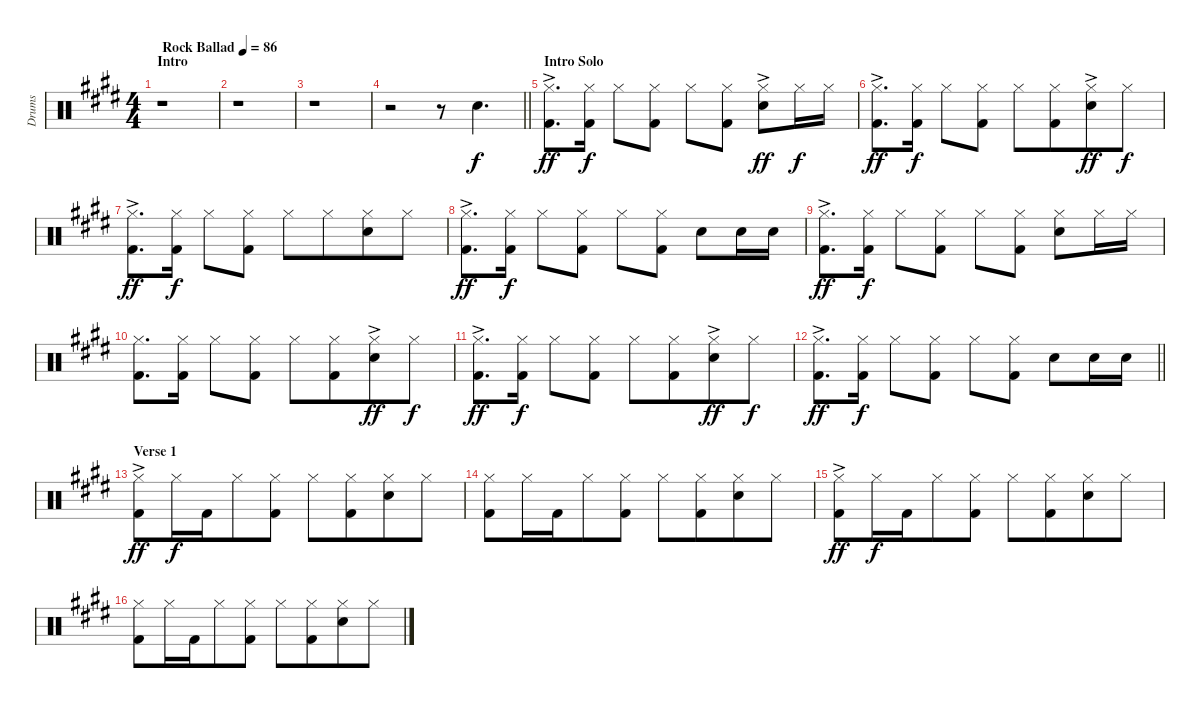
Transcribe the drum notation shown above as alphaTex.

\track ("Drums" "Drums") {instrument percussion}
\staff {score}
\articulation defaults
\ts (4 4)
\section ("" "Intro")
\tempo (86 "Rock Ballad")
\clef neutral
\ks e
r.1{dy f} |
r.1 |
r.1 |
\barLineRight lightlight
r.2 r.8 "Electric Snare (hit)".4{d} |
\section ("" "Intro Solo")
("Hi-Hat (closed)" "Kick (hit) 2"{ac}).8{d dy ff} ("Hi-Hat (closed)" "Kick (hit) 2").16{dy f} "Hi-Hat (closed)".8 ("Hi-Hat (closed)" "Kick (hit) 2").8 "Hi-Hat (closed)".8 ("Hi-Hat (closed)" "Kick (hit) 2").8{beam split} ("Hi-Hat (closed)" "Electric Snare (hit)"{ac}).8{dy ff} "Hi-Hat (closed)".16{dy f} "Hi-Hat (closed)".16 |
("Hi-Hat (closed)" "Kick (hit) 2"{ac}).8{d dy ff} ("Hi-Hat (closed)" "Kick (hit) 2").16{dy f} "Hi-Hat (closed)".8 ("Hi-Hat (closed)" "Kick (hit) 2").8 "Hi-Hat (closed)".8 ("Hi-Hat (closed)" "Kick (hit) 2").8{beam merge} ("Hi-Hat (closed)" "Electric Snare (hit)"{ac}).8{dy ff} "Hi-Hat (closed)".8{dy f} |
("Hi-Hat (closed)" "Kick (hit) 2"{ac}).8{d dy ff} ("Hi-Hat (closed)" "Kick (hit) 2").16{dy f} "Hi-Hat (closed)".8 ("Hi-Hat (closed)" "Kick (hit) 2").8 "Hi-Hat (closed)".8 "Hi-Hat (closed)".8{beam merge} ("Hi-Hat (closed)" "Electric Snare (hit)").8 "Hi-Hat (closed)".8 |
("Hi-Hat (closed)" "Kick (hit) 2"{ac}).8{d dy ff} ("Hi-Hat (closed)" "Kick (hit) 2").16{dy f} "Hi-Hat (closed)".8 ("Hi-Hat (closed)" "Kick (hit) 2").8 "Hi-Hat (closed)".8 ("Hi-Hat (closed)" "Kick (hit) 2").8 "Electric Snare (hit)".8 "Electric Snare (hit)".16 "Electric Snare (hit)".16 |
("Hi-Hat (closed)" "Kick (hit) 2"{ac}).8{d dy ff} ("Hi-Hat (closed)" "Kick (hit) 2").16{dy f} "Hi-Hat (closed)".8 ("Hi-Hat (closed)" "Kick (hit) 2").8 "Hi-Hat (closed)".8 ("Hi-Hat (closed)" "Kick (hit) 2").8{beam split} ("Hi-Hat (closed)" "Electric Snare (hit)").8 "Hi-Hat (closed)".16 "Hi-Hat (closed)".16 |
("Hi-Hat (closed)" "Kick (hit) 2").8{d} ("Hi-Hat (closed)" "Kick (hit) 2").16 "Hi-Hat (closed)".8 ("Hi-Hat (closed)" "Kick (hit) 2").8 "Hi-Hat (closed)".8 ("Hi-Hat (closed)" "Kick (hit) 2").8{beam merge} ("Hi-Hat (closed)" "Electric Snare (hit)"{ac}).8{dy ff} "Hi-Hat (closed)".8{dy f} |
("Hi-Hat (closed)" "Kick (hit) 2"{ac}).8{d dy ff} ("Hi-Hat (closed)" "Kick (hit) 2").16{dy f} "Hi-Hat (closed)".8 ("Hi-Hat (closed)" "Kick (hit) 2").8 "Hi-Hat (closed)".8 ("Hi-Hat (closed)" "Kick (hit) 2").8{beam merge} ("Hi-Hat (closed)" "Electric Snare (hit)"{ac}).8{dy ff} "Hi-Hat (closed)".8{dy f} |
\barLineRight lightlight
("Hi-Hat (closed)" "Kick (hit) 2"{ac}).8{d dy ff} ("Hi-Hat (closed)" "Kick (hit) 2").16{dy f} "Hi-Hat (closed)".8 ("Hi-Hat (closed)" "Kick (hit) 2").8 "Hi-Hat (closed)".8 ("Hi-Hat (closed)" "Kick (hit) 2").8 "Electric Snare (hit)".8 "Electric Snare (hit)".16 "Electric Snare (hit)".16 |
\section ("" "Verse 1")
("Hi-Hat (closed)" "Kick (hit) 2"{ac}).8{dy ff} "Hi-Hat (closed)".16{dy f} "Kick (hit) 2".16{beam merge} "Hi-Hat (closed)".8 ("Hi-Hat (closed)" "Kick (hit) 2").8 "Hi-Hat (closed)".8 ("Hi-Hat (closed)" "Kick (hit) 2").8{beam merge} ("Hi-Hat (closed)" "Electric Snare (hit)").8 "Hi-Hat (closed)".8 |
("Hi-Hat (closed)" "Kick (hit) 2").8 "Hi-Hat (closed)".16 "Kick (hit) 2".16{beam merge} "Hi-Hat (closed)".8 ("Hi-Hat (closed)" "Kick (hit) 2").8 "Hi-Hat (closed)".8 ("Hi-Hat (closed)" "Kick (hit) 2").8{beam merge} ("Hi-Hat (closed)" "Electric Snare (hit)").8 "Hi-Hat (closed)".8 |
("Hi-Hat (closed)" "Kick (hit) 2"{ac}).8{dy ff} "Hi-Hat (closed)".16{dy f} "Kick (hit) 2".16{beam merge} "Hi-Hat (closed)".8 ("Hi-Hat (closed)" "Kick (hit) 2").8 "Hi-Hat (closed)".8 ("Hi-Hat (closed)" "Kick (hit) 2").8{beam merge} ("Hi-Hat (closed)" "Electric Snare (hit)").8 "Hi-Hat (closed)".8 |
("Hi-Hat (closed)" "Kick (hit) 2").8 "Hi-Hat (closed)".16 "Kick (hit) 2".16{beam merge} "Hi-Hat (closed)".8 ("Hi-Hat (closed)" "Kick (hit) 2").8 "Hi-Hat (closed)".8 ("Hi-Hat (closed)" "Kick (hit) 2").8{beam merge} ("Hi-Hat (closed)" "Electric Snare (hit)").8 "Hi-Hat (closed)".8
